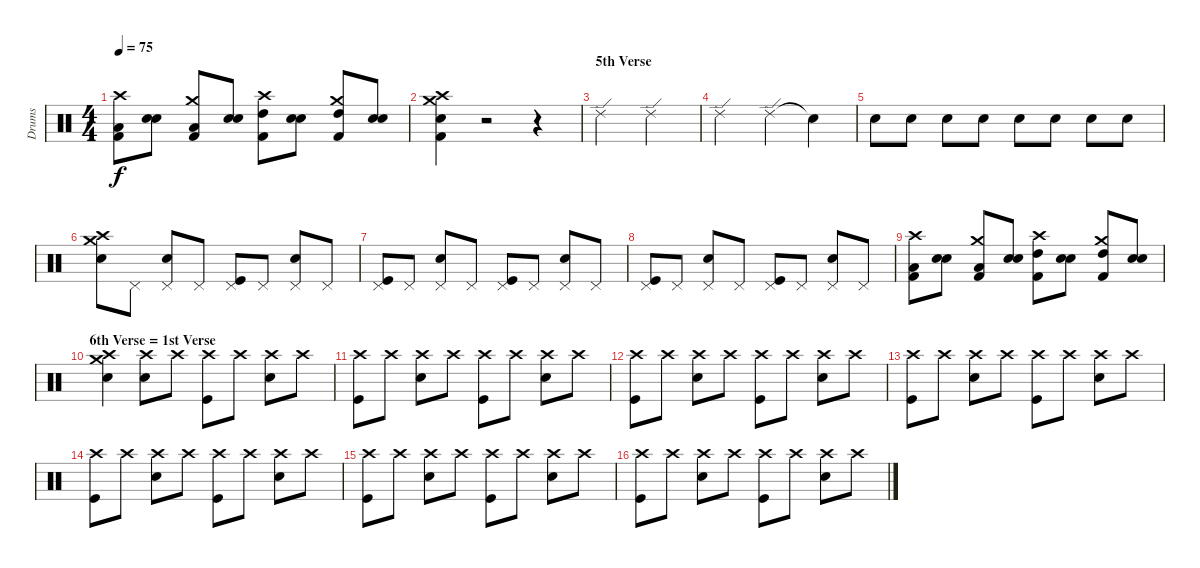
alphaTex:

\track ("Drums" "Drums") {instrument percussion}
\staff {score}
\articulation defaults
\ts (4 4)
\tempo 75
\clef neutral
\ks c
("Crash high (hit)" "Kick (hit) 2" "Low Floor Tom (hit)").8{dy f} ("Snare (hit) 2" "Snare (hit) 2").8 ("Crash medium (hit)" "Kick (hit) 2" "Low Tom (hit)").8 ("Snare (hit) 2" "Snare (hit) 2").8 ("Crash high (hit)" "Kick (hit) 2" "High Tom (hit)").8 ("Snare (hit) 2" "Snare (hit) 2").8 ("Crash medium (hit)" "Kick (hit) 2" "High Tom (hit)").8 ("Snare (hit) 2" "Snare (hit) 2").8 |
("Crash medium (hit)" "Crash high (hit)" "Snare (hit) 2" "Kick (hit) 2").4 r.2 r.4 |
\section ("" "5th Verse")
"Ride (edge) 2".2 "Ride (edge) 2".2 |
"Ride (edge) 2".2 "Ride (edge) 2".4 "Snare (hit)"{t}.4{volume 7} |
"Snare (hit) 2".8{volume 13} "Snare (hit) 2".8 "Snare (hit) 2".8 "Snare (hit) 2".8 "Snare (hit) 2".8 "Snare (hit) 2".8 "Snare (hit) 2".8 "Snare (hit) 2".8 |
("Crash medium (hit)" "Crash high (hit)" "Snare (hit) 2").8{volume 13} "Pedal Hi-Hat (hit)".8 ("Pedal Hi-Hat (hit)" "Snare (hit) 2").8 "Pedal Hi-Hat (hit)".8 ("Pedal Hi-Hat (hit)" "Kick (hit)").8 "Pedal Hi-Hat (hit)".8 ("Pedal Hi-Hat (hit)" "Snare (hit) 2").8 "Pedal Hi-Hat (hit)".8 |
("Pedal Hi-Hat (hit)" "Kick (hit)").8 "Pedal Hi-Hat (hit)".8 ("Pedal Hi-Hat (hit)" "Snare (hit) 2").8 "Pedal Hi-Hat (hit)".8 ("Pedal Hi-Hat (hit)" "Kick (hit)").8 "Pedal Hi-Hat (hit)".8 ("Pedal Hi-Hat (hit)" "Snare (hit) 2").8 "Pedal Hi-Hat (hit)".8 |
("Pedal Hi-Hat (hit)" "Kick (hit)").8 "Pedal Hi-Hat (hit)".8 ("Pedal Hi-Hat (hit)" "Snare (hit) 2").8 "Pedal Hi-Hat (hit)".8 ("Pedal Hi-Hat (hit)" "Kick (hit)").8 "Pedal Hi-Hat (hit)".8 ("Pedal Hi-Hat (hit)" "Snare (hit) 2").8 "Pedal Hi-Hat (hit)".8 |
("Crash high (hit)" "Kick (hit) 2" "Low Floor Tom (hit)").8 ("Snare (hit) 2" "Snare (hit) 2").8 ("Crash medium (hit)" "Kick (hit) 2" "Low Tom (hit)").8 ("Snare (hit) 2" "Snare (hit) 2").8 ("Crash high (hit)" "Kick (hit) 2" "High Tom (hit)").8 ("Snare (hit) 2" "Snare (hit) 2").8 ("Crash medium (hit)" "Kick (hit) 2" "High Tom (hit)").8 ("Snare (hit) 2" "Snare (hit) 2").8 |
\section ("" "6th Verse = 1st Verse")
("Crash medium (hit)" "Crash high (hit)" "Snare (hit) 2").4 ("Crash high (hit)" "Snare (hit) 2").8 "Crash high (hit)".8 ("Crash high (hit)" "Kick (hit)").8 "Crash high (hit)".8 ("Crash high (hit)" "Snare (hit) 2").8 "Crash high (hit)".8 |
("Crash high (hit)" "Kick (hit)").8 "Crash high (hit)".8 ("Crash high (hit)" "Snare (hit) 2").8 "Crash high (hit)".8 ("Crash high (hit)" "Kick (hit)").8 "Crash high (hit)".8 ("Crash high (hit)" "Snare (hit) 2").8 "Crash high (hit)".8 |
("Crash high (hit)" "Kick (hit)").8 "Crash high (hit)".8 ("Crash high (hit)" "Snare (hit) 2").8 "Crash high (hit)".8 ("Crash high (hit)" "Kick (hit)").8 "Crash high (hit)".8 ("Crash high (hit)" "Snare (hit) 2").8 "Crash high (hit)".8 |
("Crash high (hit)" "Kick (hit)").8 "Crash high (hit)".8 ("Crash high (hit)" "Snare (hit) 2").8 "Crash high (hit)".8 ("Crash high (hit)" "Kick (hit)").8 "Crash high (hit)".8 ("Crash high (hit)" "Snare (hit) 2").8 "Crash high (hit)".8 |
("Crash high (hit)" "Kick (hit)").8 "Crash high (hit)".8 ("Crash high (hit)" "Snare (hit) 2").8 "Crash high (hit)".8 ("Crash high (hit)" "Kick (hit)").8 "Crash high (hit)".8 ("Crash high (hit)" "Snare (hit) 2").8 "Crash high (hit)".8 |
("Crash high (hit)" "Kick (hit)").8 "Crash high (hit)".8 ("Crash high (hit)" "Snare (hit) 2").8 "Crash high (hit)".8 ("Crash high (hit)" "Kick (hit)").8 "Crash high (hit)".8 ("Crash high (hit)" "Snare (hit) 2").8 "Crash high (hit)".8 |
("Crash high (hit)" "Kick (hit)").8 "Crash high (hit)".8 ("Crash high (hit)" "Snare (hit) 2").8 "Crash high (hit)".8 ("Crash high (hit)" "Kick (hit)").8 "Crash high (hit)".8 ("Crash high (hit)" "Snare (hit) 2").8 "Crash high (hit)".8
